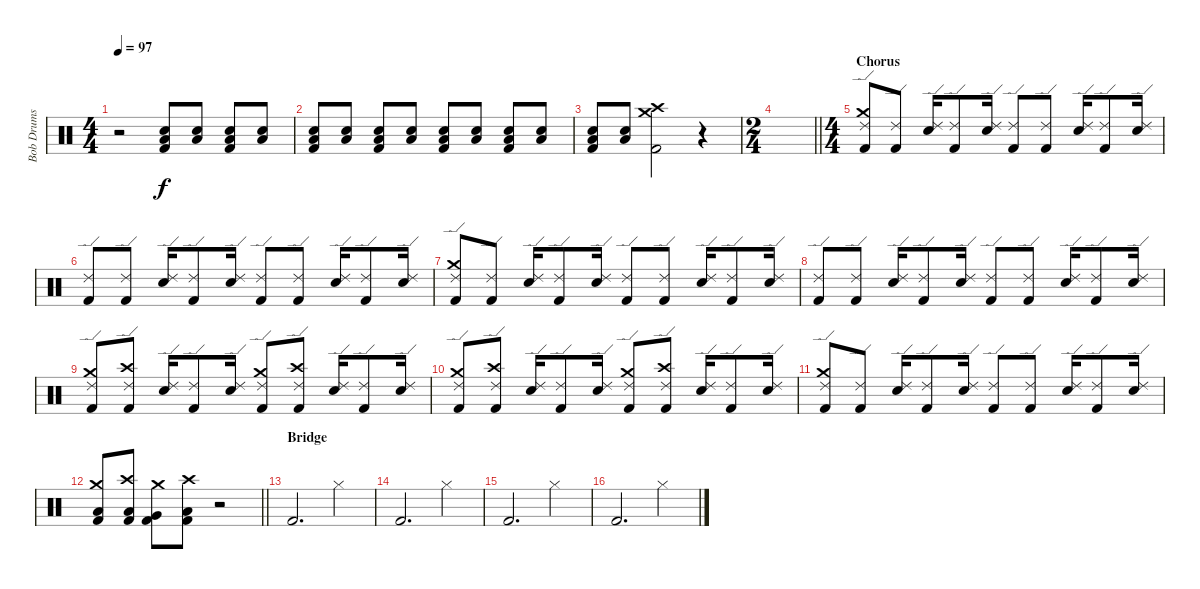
\track ("Bob Drums" "Bob Drums") {instrument percussion}
\staff {score}
\articulation defaults
\ts (4 4)
\tempo 97
\clef neutral
\ks c
r.2{dy f volume 10} ("Low Floor Tom (hit)" "Snare (hit) 2" "Kick (hit) 2").8{volume 16} ("Low Floor Tom (hit)" "Snare (hit) 2").8 ("Low Floor Tom (hit)" "Snare (hit) 2" "Kick (hit) 2").8 ("Low Floor Tom (hit)" "Snare (hit) 2").8 |
("Low Floor Tom (hit)" "Snare (hit) 2" "Kick (hit) 2").8 ("Low Floor Tom (hit)" "Snare (hit) 2").8 ("Low Floor Tom (hit)" "Snare (hit) 2" "Kick (hit) 2").8 ("Low Floor Tom (hit)" "Snare (hit) 2").8 ("Low Floor Tom (hit)" "Snare (hit) 2" "Kick (hit) 2").8 ("Low Floor Tom (hit)" "Snare (hit) 2").8 ("Low Floor Tom (hit)" "Snare (hit) 2" "Kick (hit) 2").8 ("Low Floor Tom (hit)" "Snare (hit) 2").8 |
("Low Floor Tom (hit)" "Snare (hit) 2" "Kick (hit) 2").8 ("Low Floor Tom (hit)" "Snare (hit) 2").8 ("Crash high (hit)" "Crash medium (hit)" "Kick (hit) 2").2 r.4 |
\ts (2 4)
\barLineRight lightlight
|
\ts (4 4)
\section ("" "Chorus")
("Ride (edge) 2" "Crash medium (hit)" "Kick (hit) 2").8 ("Ride (edge) 2" "Kick (hit) 2").8 ("Ride (edge) 2" "Snare (hit) 2").16 ("Ride (edge) 2" "Kick (hit) 2").8 ("Ride (edge) 2" "Snare (hit) 2").16 ("Ride (edge) 2" "Kick (hit) 2").8 ("Ride (edge) 2" "Kick (hit) 2").8 ("Ride (edge) 2" "Snare (hit) 2").16 ("Ride (edge) 2" "Kick (hit) 2").8 ("Ride (edge) 2" "Snare (hit) 2").16 |
("Ride (edge) 2" "Kick (hit) 2").8 ("Ride (edge) 2" "Kick (hit) 2").8 ("Ride (edge) 2" "Snare (hit) 2").16 ("Ride (edge) 2" "Kick (hit) 2").8 ("Ride (edge) 2" "Snare (hit) 2").16 ("Ride (edge) 2" "Kick (hit) 2").8 ("Ride (edge) 2" "Kick (hit) 2").8 ("Ride (edge) 2" "Snare (hit) 2").16 ("Ride (edge) 2" "Kick (hit) 2").8 ("Ride (edge) 2" "Snare (hit) 2").16 |
("Ride (edge) 2" "Crash medium (hit)" "Kick (hit) 2").8 ("Ride (edge) 2" "Kick (hit) 2").8 ("Ride (edge) 2" "Snare (hit) 2").16 ("Ride (edge) 2" "Kick (hit) 2").8 ("Ride (edge) 2" "Snare (hit) 2").16 ("Ride (edge) 2" "Kick (hit) 2").8 ("Ride (edge) 2" "Kick (hit) 2").8 ("Ride (edge) 2" "Snare (hit) 2").16 ("Ride (edge) 2" "Kick (hit) 2").8 ("Ride (edge) 2" "Snare (hit) 2").16 |
("Ride (edge) 2" "Kick (hit) 2").8 ("Ride (edge) 2" "Kick (hit) 2").8 ("Ride (edge) 2" "Snare (hit) 2").16 ("Ride (edge) 2" "Kick (hit) 2").8 ("Ride (edge) 2" "Snare (hit) 2").16 ("Ride (edge) 2" "Kick (hit) 2").8 ("Ride (edge) 2" "Kick (hit) 2").8 ("Ride (edge) 2" "Snare (hit) 2").16 ("Ride (edge) 2" "Kick (hit) 2").8 ("Ride (edge) 2" "Snare (hit) 2").16 |
("Ride (edge) 2" "Crash medium (hit)" "Kick (hit) 2").8 ("Ride (edge) 2" "Crash high (hit)" "Kick (hit) 2").8 ("Ride (edge) 2" "Snare (hit) 2").16 ("Ride (edge) 2" "Kick (hit) 2").8 ("Ride (edge) 2" "Snare (hit) 2").16 ("Ride (edge) 2" "Crash medium (hit)" "Kick (hit) 2").8 ("Ride (edge) 2" "Crash high (hit)" "Kick (hit) 2").8 ("Ride (edge) 2" "Snare (hit) 2").16 ("Ride (edge) 2" "Kick (hit) 2").8 ("Ride (edge) 2" "Snare (hit) 2").16 |
("Ride (edge) 2" "Crash medium (hit)" "Kick (hit) 2").8 ("Ride (edge) 2" "Crash high (hit)" "Kick (hit) 2").8 ("Ride (edge) 2" "Snare (hit) 2").16 ("Ride (edge) 2" "Kick (hit) 2").8 ("Ride (edge) 2" "Snare (hit) 2").16 ("Ride (edge) 2" "Crash medium (hit)" "Kick (hit) 2").8 ("Ride (edge) 2" "Crash high (hit)" "Kick (hit) 2").8 ("Ride (edge) 2" "Snare (hit) 2").16 ("Ride (edge) 2" "Kick (hit) 2").8 ("Ride (edge) 2" "Snare (hit) 2").16 |
("Ride (edge) 2" "Crash medium (hit)" "Kick (hit) 2").8 ("Ride (edge) 2" "Kick (hit) 2").8 ("Ride (edge) 2" "Snare (hit) 2").16 ("Ride (edge) 2" "Kick (hit) 2").8 ("Ride (edge) 2" "Snare (hit) 2").16 ("Ride (edge) 2" "Kick (hit) 2").8 ("Ride (edge) 2" "Kick (hit) 2").8 ("Ride (edge) 2" "Snare (hit) 2").16 ("Ride (edge) 2" "Kick (hit) 2").8 ("Ride (edge) 2" "Snare (hit) 2").16 |
\barLineRight lightlight
("Crash medium (hit)" "Low Tom (hit)" "Kick (hit) 2").8 ("Crash high (hit)" "Low Tom (hit)" "Kick (hit) 2").8 ("Crash medium (hit)" "Very Low Tom (hit)" "Kick (hit) 2").8 ("Crash high (hit)" "Low Floor Tom (hit)" "Kick (hit) 2").8 r.2 |
\section ("" "Bridge")
"Kick (hit) 2".2{d} "Hi-Hat (closed)".4 |
"Kick (hit) 2".2{d} "Hi-Hat (closed)".4 |
"Kick (hit) 2".2{d} "Hi-Hat (closed)".4 |
"Kick (hit) 2".2{d} "Hi-Hat (closed)".4
